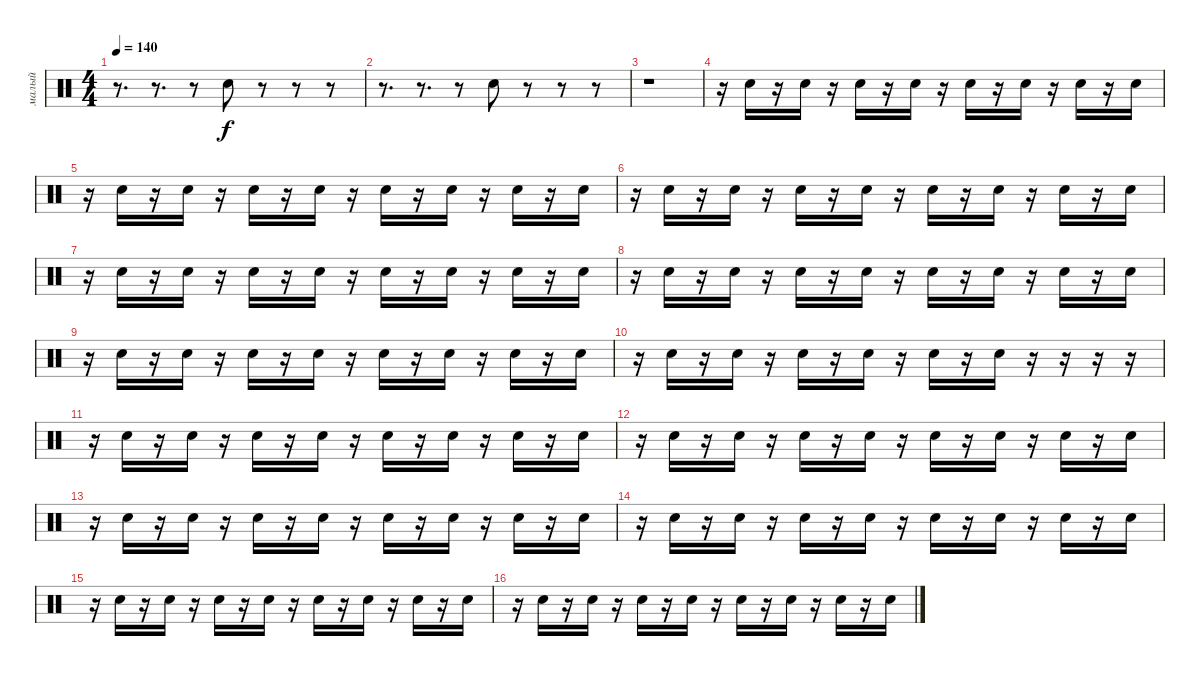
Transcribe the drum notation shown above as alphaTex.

\track ("малый" "малый") {mute instrument percussion}
\staff {score}
\articulation defaults
\ts (4 4)
\tempo 140
\clef neutral
\ks c
r.8{d dy f} r.8{d} r.8 "Electric Snare (hit)".8 r.8 r.8 r.8 |
r.8{d} r.8{d} r.8 "Electric Snare (hit)".8 r.8 r.8 r.8 |
r.1 |
r.16 "Electric Snare (hit)".16 r.16 "Electric Snare (hit)".16 r.16 "Electric Snare (hit)".16 r.16 "Electric Snare (hit)".16 r.16 "Electric Snare (hit)".16 r.16 "Electric Snare (hit)".16 r.16 "Electric Snare (hit)".16 r.16 "Electric Snare (hit)".16 |
r.16 "Electric Snare (hit)".16 r.16 "Electric Snare (hit)".16 r.16 "Electric Snare (hit)".16 r.16 "Electric Snare (hit)".16 r.16 "Electric Snare (hit)".16 r.16 "Electric Snare (hit)".16 r.16 "Electric Snare (hit)".16 r.16 "Electric Snare (hit)".16 |
r.16 "Electric Snare (hit)".16 r.16 "Electric Snare (hit)".16 r.16 "Electric Snare (hit)".16 r.16 "Electric Snare (hit)".16 r.16 "Electric Snare (hit)".16 r.16 "Electric Snare (hit)".16 r.16 "Electric Snare (hit)".16 r.16 "Electric Snare (hit)".16 |
r.16 "Electric Snare (hit)".16 r.16 "Electric Snare (hit)".16 r.16 "Electric Snare (hit)".16 r.16 "Electric Snare (hit)".16 r.16 "Electric Snare (hit)".16 r.16 "Electric Snare (hit)".16 r.16 "Electric Snare (hit)".16 r.16 "Electric Snare (hit)".16 |
r.16 "Electric Snare (hit)".16 r.16 "Electric Snare (hit)".16 r.16 "Electric Snare (hit)".16 r.16 "Electric Snare (hit)".16 r.16 "Electric Snare (hit)".16 r.16 "Electric Snare (hit)".16 r.16 "Electric Snare (hit)".16 r.16 "Electric Snare (hit)".16 |
r.16 "Electric Snare (hit)".16 r.16 "Electric Snare (hit)".16 r.16 "Electric Snare (hit)".16 r.16 "Electric Snare (hit)".16 r.16 "Electric Snare (hit)".16 r.16 "Electric Snare (hit)".16 r.16 "Electric Snare (hit)".16 r.16 "Electric Snare (hit)".16 |
r.16 "Electric Snare (hit)".16 r.16 "Electric Snare (hit)".16 r.16 "Electric Snare (hit)".16 r.16 "Electric Snare (hit)".16 r.16 "Electric Snare (hit)".16 r.16 "Electric Snare (hit)".16 r.16 r.16 r.16 r.16 |
r.16 "Electric Snare (hit)".16 r.16 "Electric Snare (hit)".16 r.16 "Electric Snare (hit)".16 r.16 "Electric Snare (hit)".16 r.16 "Electric Snare (hit)".16 r.16 "Electric Snare (hit)".16 r.16 "Electric Snare (hit)".16 r.16 "Electric Snare (hit)".16 |
r.16 "Electric Snare (hit)".16 r.16 "Electric Snare (hit)".16 r.16 "Electric Snare (hit)".16 r.16 "Electric Snare (hit)".16 r.16 "Electric Snare (hit)".16 r.16 "Electric Snare (hit)".16 r.16 "Electric Snare (hit)".16 r.16 "Electric Snare (hit)".16 |
r.16 "Electric Snare (hit)".16 r.16 "Electric Snare (hit)".16 r.16 "Electric Snare (hit)".16 r.16 "Electric Snare (hit)".16 r.16 "Electric Snare (hit)".16 r.16 "Electric Snare (hit)".16 r.16 "Electric Snare (hit)".16 r.16 "Electric Snare (hit)".16 |
r.16 "Electric Snare (hit)".16 r.16 "Electric Snare (hit)".16 r.16 "Electric Snare (hit)".16 r.16 "Electric Snare (hit)".16 r.16 "Electric Snare (hit)".16 r.16 "Electric Snare (hit)".16 r.16 "Electric Snare (hit)".16 r.16 "Electric Snare (hit)".16 |
r.16 "Electric Snare (hit)".16 r.16 "Electric Snare (hit)".16 r.16 "Electric Snare (hit)".16 r.16 "Electric Snare (hit)".16 r.16 "Electric Snare (hit)".16 r.16 "Electric Snare (hit)".16 r.16 "Electric Snare (hit)".16 r.16 "Electric Snare (hit)".16 |
r.16 "Electric Snare (hit)".16 r.16 "Electric Snare (hit)".16 r.16 "Electric Snare (hit)".16 r.16 "Electric Snare (hit)".16 r.16 "Electric Snare (hit)".16 r.16 "Electric Snare (hit)".16 r.16 "Electric Snare (hit)".16 r.16 "Electric Snare (hit)".16
